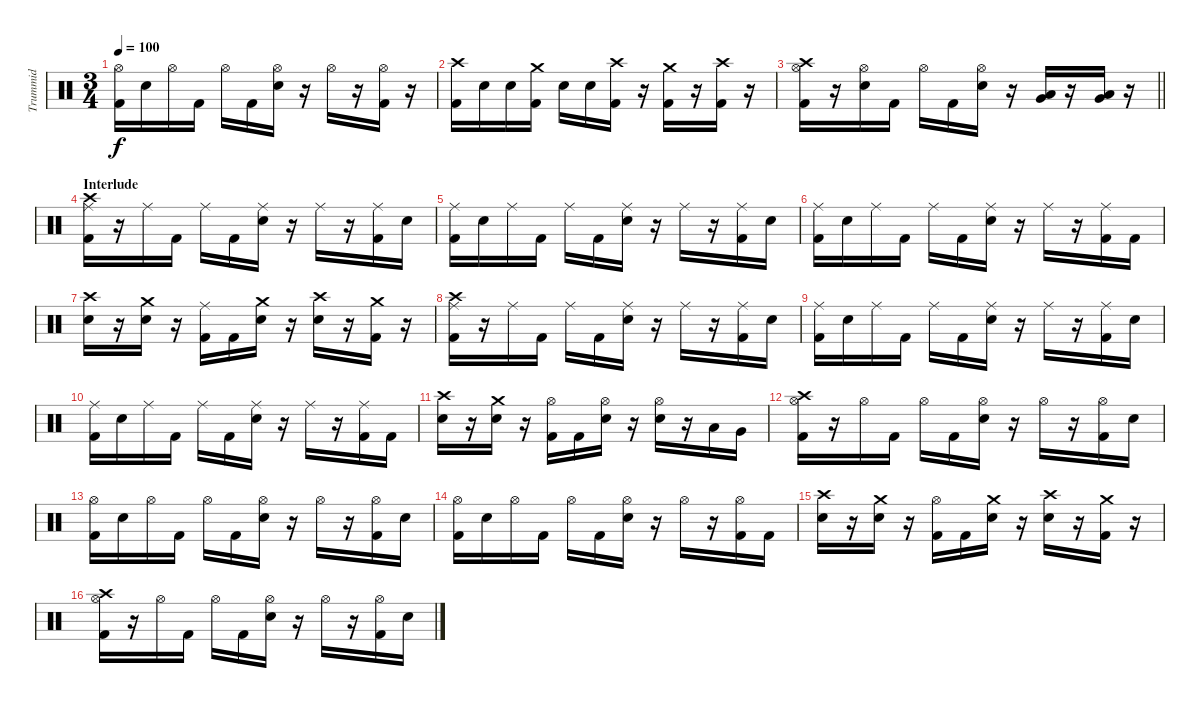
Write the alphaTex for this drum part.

\track ("Trummid" "Trummid") {instrument percussion}
\staff {score}
\articulation defaults
\ts (3 4)
\tempo 100
\clef neutral
\ks c
("Hi-Hat (open)" "Kick (hit) 2").16{dy f} "Snare (hit) 2".16 "Hi-Hat (open)".16 "Kick (hit) 2".16 "Hi-Hat (open)".16 "Kick (hit) 2".16 ("Hi-Hat (open)" "Snare (hit) 2").16 r.16 "Hi-Hat (open)".16 r.16 ("Hi-Hat (open)" "Kick (hit) 2").16 r.16 |
("Crash high (hit)" "Kick (hit) 2").16 "Snare (hit) 2".16 "Snare (hit) 2".16 ("Crash medium (hit)" "Kick (hit) 2").16 "Snare (hit) 2".16 "Snare (hit) 2".16 ("Crash high (hit)" "Kick (hit) 2").16 r.16 ("Crash medium (hit)" "Kick (hit) 2").16 r.16 ("Crash high (hit)" "Kick (hit) 2").16 r.16 |
\barLineRight lightlight
("Crash high (hit)" "Hi-Hat (open)" "Kick (hit) 2").16 r.16 ("Hi-Hat (open)" "Snare (hit) 2").16 "Kick (hit) 2".16 "Hi-Hat (open)".16 "Kick (hit) 2".16 ("Hi-Hat (open)" "Snare (hit) 2").16 r.16 ("Low Tom (hit)" "Very Low Tom (hit)").16 r.16 ("Very Low Tom (hit)" "Low Floor Tom (hit)").16 r.16 |
\section ("" "Interlude")
("Crash high (hit)" "Ride (middle)" "Kick (hit) 2").16 r.16 "Ride (middle)".16 "Kick (hit) 2".16 "Ride (middle)".16 "Kick (hit) 2".16 ("Ride (middle)" "Snare (hit) 2").16 r.16 "Ride (middle)".16 r.16 ("Ride (middle)" "Kick (hit) 2").16 "Snare (hit) 2".16 |
("Ride (middle)" "Kick (hit) 2").16 "Snare (hit) 2".16 "Ride (middle)".16 "Kick (hit) 2".16 "Ride (middle)".16 "Kick (hit) 2".16 ("Ride (middle)" "Snare (hit) 2").16 r.16 "Ride (middle)".16 r.16 ("Ride (middle)" "Kick (hit) 2").16 "Snare (hit) 2".16 |
("Ride (middle)" "Kick (hit) 2").16 "Snare (hit) 2".16 "Ride (middle)".16 "Kick (hit) 2".16 "Ride (middle)".16 "Kick (hit) 2".16 ("Ride (middle)" "Snare (hit) 2").16 r.16 "Ride (middle)".16 r.16 ("Ride (middle)" "Kick (hit) 2").16 "Kick (hit) 2".16 |
("Crash high (hit)" "Snare (hit) 2").16 r.16 ("Crash medium (hit)" "Snare (hit) 2").16 r.16 ("Ride (middle)" "Kick (hit) 2").16 "Kick (hit) 2".16 ("Crash medium (hit)" "Snare (hit) 2").16 r.16 ("Crash high (hit)" "Snare (hit) 2").16 r.16 ("Crash medium (hit)" "Kick (hit) 2").16 r.16 |
("Crash high (hit)" "Ride (middle)" "Kick (hit) 2").16 r.16 "Ride (middle)".16 "Kick (hit) 2".16 "Ride (middle)".16 "Kick (hit) 2".16 ("Ride (middle)" "Snare (hit) 2").16 r.16 "Ride (middle)".16 r.16 ("Ride (middle)" "Kick (hit) 2").16 "Snare (hit) 2".16 |
("Ride (middle)" "Kick (hit) 2").16 "Snare (hit) 2".16 "Ride (middle)".16 "Kick (hit) 2".16 "Ride (middle)".16 "Kick (hit) 2".16 ("Ride (middle)" "Snare (hit) 2").16 r.16 "Ride (middle)".16 r.16 ("Ride (middle)" "Kick (hit) 2").16 "Snare (hit) 2".16 |
("Ride (middle)" "Kick (hit) 2").16 "Snare (hit) 2".16 "Ride (middle)".16 "Kick (hit) 2".16 "Ride (middle)".16 "Kick (hit) 2".16 ("Ride (middle)" "Snare (hit) 2").16 r.16 "Ride (middle)".16 r.16 ("Ride (middle)" "Kick (hit) 2").16 "Kick (hit) 2".16 |
("Crash high (hit)" "Snare (hit) 2").16 r.16 ("Crash medium (hit)" "Snare (hit) 2").16 r.16 ("Hi-Hat (open)" "Kick (hit) 2").16 "Kick (hit) 2".16 ("Hi-Hat (open)" "Snare (hit) 2").16 r.16 ("Hi-Hat (open)" "Snare (hit) 2").16 r.16 "Low Tom (hit)".16 "Very Low Tom (hit)".16 |
("Crash high (hit)" "Hi-Hat (open)" "Kick (hit) 2").16 r.16 "Hi-Hat (open)".16 "Kick (hit) 2".16 "Hi-Hat (open)".16 "Kick (hit) 2".16 ("Hi-Hat (open)" "Snare (hit) 2").16 r.16 "Hi-Hat (open)".16 r.16 ("Hi-Hat (open)" "Kick (hit) 2").16 "Snare (hit) 2".16 |
("Hi-Hat (open)" "Kick (hit) 2").16 "Snare (hit) 2".16 "Hi-Hat (open)".16 "Kick (hit) 2".16 "Hi-Hat (open)".16 "Kick (hit) 2".16 ("Hi-Hat (open)" "Snare (hit) 2").16 r.16 "Hi-Hat (open)".16 r.16 ("Hi-Hat (open)" "Kick (hit) 2").16 "Snare (hit) 2".16 |
("Hi-Hat (open)" "Kick (hit) 2").16 "Snare (hit) 2".16 "Hi-Hat (open)".16 "Kick (hit) 2".16 "Hi-Hat (open)".16 "Kick (hit) 2".16 ("Hi-Hat (open)" "Snare (hit) 2").16 r.16 "Hi-Hat (open)".16 r.16 ("Hi-Hat (open)" "Kick (hit) 2").16 "Kick (hit) 2".16 |
("Crash high (hit)" "Snare (hit) 2").16 r.16 ("Crash medium (hit)" "Snare (hit) 2").16 r.16 ("Hi-Hat (open)" "Kick (hit) 2").16 "Kick (hit) 2".16 ("Crash medium (hit)" "Snare (hit) 2").16 r.16 ("Crash high (hit)" "Snare (hit) 2").16 r.16 ("Crash medium (hit)" "Kick (hit) 2").16 r.16 |
("Crash high (hit)" "Hi-Hat (open)" "Kick (hit) 2").16 r.16 "Hi-Hat (open)".16 "Kick (hit) 2".16 "Hi-Hat (open)".16 "Kick (hit) 2".16 ("Hi-Hat (open)" "Snare (hit) 2").16 r.16 "Hi-Hat (open)".16 r.16 ("Hi-Hat (open)" "Kick (hit) 2").16 "Snare (hit) 2".16
